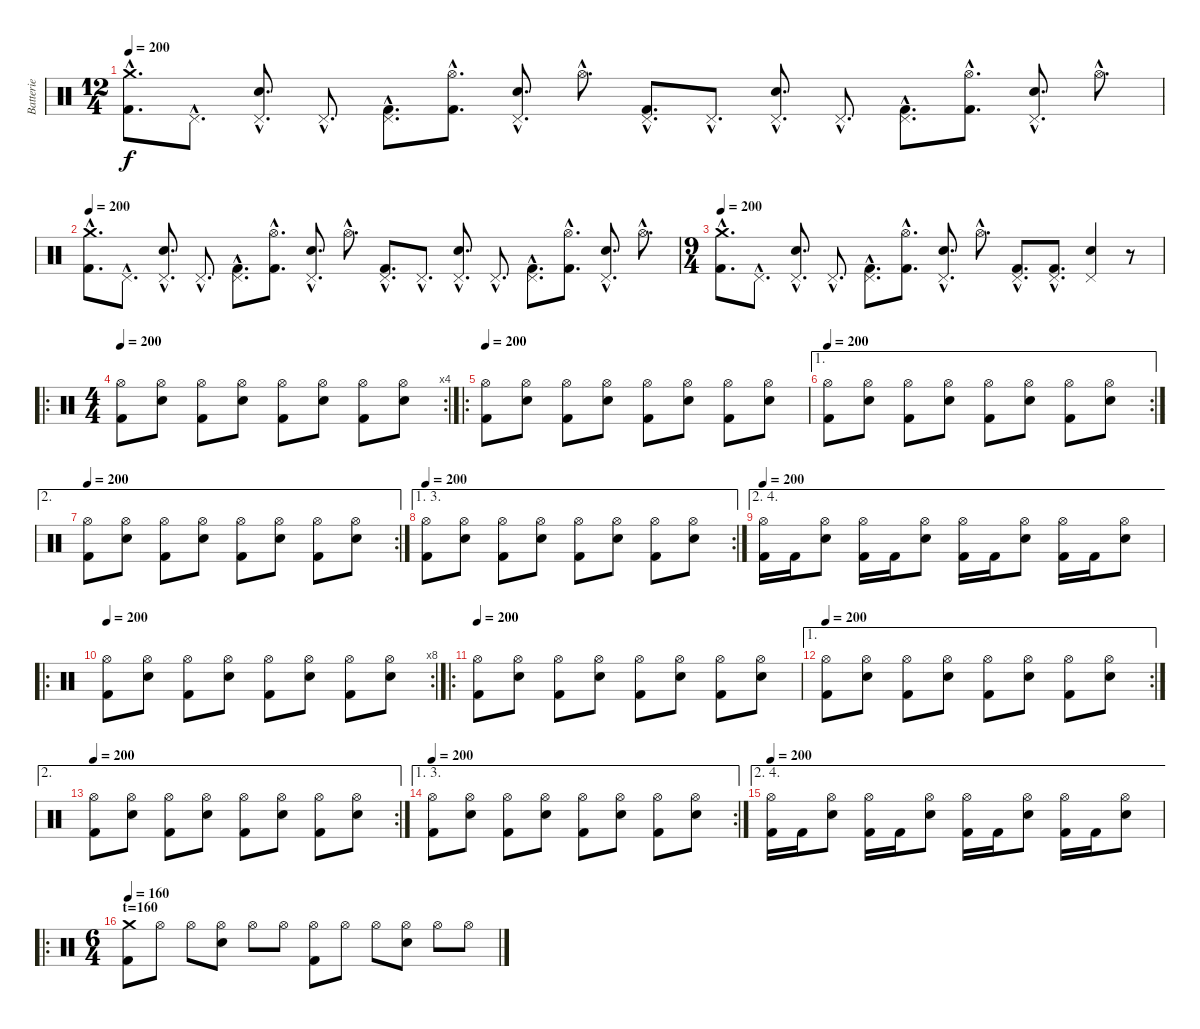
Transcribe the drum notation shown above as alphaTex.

\track ("Batterie" "Batterie") {instrument percussion}
\staff {score}
\articulation defaults
\ts (12 4)
\tempo 220
\tempo 200
\clef neutral
\ks c
("Crash medium (hit)"{hac} "Kick (hit) 2"{hac}).8{d dy f} "Pedal Hi-Hat (hit)"{hac}.8{d} ("Pedal Hi-Hat (hit)"{hac} "Electric Snare (hit)"{hac}).8{d} "Pedal Hi-Hat (hit)"{hac}.8{d} ("Pedal Hi-Hat (hit)"{hac} "Kick (hit) 2"{hac}).8{d} ("Hi-Hat (open)"{hac} "Kick (hit) 2"{hac}).8{d} ("Pedal Hi-Hat (hit)"{hac} "Electric Snare (hit)"{hac}).8{d} "Hi-Hat (open)"{hac}.8{d} ("Pedal Hi-Hat (hit)"{hac} "Kick (hit) 2"{hac}).8{d} "Pedal Hi-Hat (hit)"{hac}.8{d} ("Pedal Hi-Hat (hit)"{hac} "Electric Snare (hit)"{hac}).8{d} "Pedal Hi-Hat (hit)"{hac}.8{d} ("Pedal Hi-Hat (hit)"{hac} "Kick (hit) 2"{hac}).8{d} ("Hi-Hat (open)"{hac} "Kick (hit) 2"{hac}).8{d} ("Pedal Hi-Hat (hit)"{hac} "Electric Snare (hit)"{hac}).8{d} "Hi-Hat (open)"{hac}.8{d} |
\tempo 220
\tempo 200
("Crash medium (hit)"{hac} "Kick (hit) 2"{hac}).8{d} "Pedal Hi-Hat (hit)"{hac}.8{d} ("Pedal Hi-Hat (hit)"{hac} "Electric Snare (hit)"{hac}).8{d} "Pedal Hi-Hat (hit)"{hac}.8{d} ("Pedal Hi-Hat (hit)"{hac} "Kick (hit) 2"{hac}).8{d} ("Hi-Hat (open)"{hac} "Kick (hit) 2"{hac}).8{d} ("Pedal Hi-Hat (hit)"{hac} "Electric Snare (hit)"{hac}).8{d} "Hi-Hat (open)"{hac}.8{d} ("Pedal Hi-Hat (hit)"{hac} "Kick (hit) 2"{hac}).8{d} "Pedal Hi-Hat (hit)"{hac}.8{d} ("Pedal Hi-Hat (hit)"{hac} "Electric Snare (hit)"{hac}).8{d} "Pedal Hi-Hat (hit)"{hac}.8{d} ("Pedal Hi-Hat (hit)"{hac} "Kick (hit) 2"{hac}).8{d} ("Hi-Hat (open)"{hac} "Kick (hit) 2"{hac}).8{d} ("Pedal Hi-Hat (hit)"{hac} "Electric Snare (hit)"{hac}).8{d} "Hi-Hat (open)"{hac}.8{d} |
\ts (9 4)
\tempo 200
("Crash medium (hit)"{hac} "Kick (hit) 2"{hac}).8{d} "Pedal Hi-Hat (hit)"{hac}.8{d} ("Pedal Hi-Hat (hit)"{hac} "Electric Snare (hit)"{hac}).8{d} "Pedal Hi-Hat (hit)"{hac}.8{d} ("Pedal Hi-Hat (hit)"{hac} "Kick (hit) 2"{hac}).8{d} ("Hi-Hat (open)"{hac} "Kick (hit) 2"{hac}).8{d} ("Pedal Hi-Hat (hit)"{hac} "Electric Snare (hit)"{hac}).8{d} "Hi-Hat (open)"{hac}.8{d} ("Pedal Hi-Hat (hit)"{hac} "Kick (hit) 2"{hac}).8{d} ("Pedal Hi-Hat (hit)"{hac} "Kick (hit) 2"{hac}).8{d} ("Pedal Hi-Hat (hit)" "Electric Snare (hit)").4 r.8 |
\ro
\rc 4
\ts (4 4)
\tempo 200
("Hi-Hat (open)" "Kick (hit) 2").8 ("Hi-Hat (open)" "Electric Snare (hit)").8 ("Hi-Hat (open)" "Kick (hit) 2").8 ("Hi-Hat (open)" "Electric Snare (hit)").8 ("Hi-Hat (open)" "Kick (hit) 2").8 ("Hi-Hat (open)" "Electric Snare (hit)").8 ("Hi-Hat (open)" "Kick (hit) 2").8 ("Hi-Hat (open)" "Electric Snare (hit)").8 |
\ro
\tempo 200
("Hi-Hat (open)" "Kick (hit) 2").8 ("Hi-Hat (open)" "Electric Snare (hit)").8 ("Hi-Hat (open)" "Kick (hit) 2").8 ("Hi-Hat (open)" "Electric Snare (hit)").8 ("Hi-Hat (open)" "Kick (hit) 2").8 ("Hi-Hat (open)" "Electric Snare (hit)").8 ("Hi-Hat (open)" "Kick (hit) 2").8 ("Hi-Hat (open)" "Electric Snare (hit)").8 |
\ae 1
\rc 2
\tempo 200
("Hi-Hat (open)" "Kick (hit) 2").8 ("Hi-Hat (open)" "Electric Snare (hit)").8 ("Hi-Hat (open)" "Kick (hit) 2").8 ("Hi-Hat (open)" "Electric Snare (hit)").8 ("Hi-Hat (open)" "Kick (hit) 2").8 ("Hi-Hat (open)" "Electric Snare (hit)").8 ("Hi-Hat (open)" "Kick (hit) 2").8 ("Hi-Hat (open)" "Electric Snare (hit)").8 |
\ae 2
\rc 2
\tempo 200
("Hi-Hat (open)" "Kick (hit) 2").8 ("Hi-Hat (open)" "Electric Snare (hit)").8 ("Hi-Hat (open)" "Kick (hit) 2").8 ("Hi-Hat (open)" "Electric Snare (hit)").8 ("Hi-Hat (open)" "Kick (hit) 2").8 ("Hi-Hat (open)" "Electric Snare (hit)").8 ("Hi-Hat (open)" "Kick (hit) 2").8 ("Hi-Hat (open)" "Electric Snare (hit)").8 |
\ae (1 3)
\rc 2
\tempo 200
("Hi-Hat (open)" "Kick (hit) 2").8 ("Hi-Hat (open)" "Electric Snare (hit)").8 ("Hi-Hat (open)" "Kick (hit) 2").8 ("Hi-Hat (open)" "Electric Snare (hit)").8 ("Hi-Hat (open)" "Kick (hit) 2").8 ("Hi-Hat (open)" "Electric Snare (hit)").8 ("Hi-Hat (open)" "Kick (hit) 2").8 ("Hi-Hat (open)" "Electric Snare (hit)").8 |
\ae (2 4)
\tempo 200
("Hi-Hat (open)" "Kick (hit) 2").16 "Kick (hit) 2".16 ("Hi-Hat (open)" "Electric Snare (hit)").8 ("Hi-Hat (open)" "Kick (hit) 2").16 "Kick (hit) 2".16 ("Hi-Hat (open)" "Electric Snare (hit)").8 ("Hi-Hat (open)" "Kick (hit) 2").16 "Kick (hit) 2".16 ("Hi-Hat (open)" "Electric Snare (hit)").8 ("Hi-Hat (open)" "Kick (hit) 2").16 "Kick (hit) 2".16 ("Hi-Hat (open)" "Electric Snare (hit)").8 |
\ro
\rc 8
\tempo 200
("Hi-Hat (open)" "Kick (hit) 2").8 ("Hi-Hat (open)" "Electric Snare (hit)").8 ("Hi-Hat (open)" "Kick (hit) 2").8 ("Hi-Hat (open)" "Electric Snare (hit)").8 ("Hi-Hat (open)" "Kick (hit) 2").8 ("Hi-Hat (open)" "Electric Snare (hit)").8 ("Hi-Hat (open)" "Kick (hit) 2").8 ("Hi-Hat (open)" "Electric Snare (hit)").8 |
\ro
\tempo 200
("Hi-Hat (open)" "Kick (hit) 2").8 ("Hi-Hat (open)" "Electric Snare (hit)").8 ("Hi-Hat (open)" "Kick (hit) 2").8 ("Hi-Hat (open)" "Electric Snare (hit)").8 ("Hi-Hat (open)" "Kick (hit) 2").8 ("Hi-Hat (open)" "Electric Snare (hit)").8 ("Hi-Hat (open)" "Kick (hit) 2").8 ("Hi-Hat (open)" "Electric Snare (hit)").8 |
\ae 1
\rc 2
\tempo 200
("Hi-Hat (open)" "Kick (hit) 2").8 ("Hi-Hat (open)" "Electric Snare (hit)").8 ("Hi-Hat (open)" "Kick (hit) 2").8 ("Hi-Hat (open)" "Electric Snare (hit)").8 ("Hi-Hat (open)" "Kick (hit) 2").8 ("Hi-Hat (open)" "Electric Snare (hit)").8 ("Hi-Hat (open)" "Kick (hit) 2").8 ("Hi-Hat (open)" "Electric Snare (hit)").8 |
\ae 2
\rc 2
\tempo 200
("Hi-Hat (open)" "Kick (hit) 2").8 ("Hi-Hat (open)" "Electric Snare (hit)").8 ("Hi-Hat (open)" "Kick (hit) 2").8 ("Hi-Hat (open)" "Electric Snare (hit)").8 ("Hi-Hat (open)" "Kick (hit) 2").8 ("Hi-Hat (open)" "Electric Snare (hit)").8 ("Hi-Hat (open)" "Kick (hit) 2").8 ("Hi-Hat (open)" "Electric Snare (hit)").8 |
\ae (1 3)
\rc 2
\tempo 200
("Hi-Hat (open)" "Kick (hit) 2").8 ("Hi-Hat (open)" "Electric Snare (hit)").8 ("Hi-Hat (open)" "Kick (hit) 2").8 ("Hi-Hat (open)" "Electric Snare (hit)").8 ("Hi-Hat (open)" "Kick (hit) 2").8 ("Hi-Hat (open)" "Electric Snare (hit)").8 ("Hi-Hat (open)" "Kick (hit) 2").8 ("Hi-Hat (open)" "Electric Snare (hit)").8 |
\ae (2 4)
\tempo 200
("Hi-Hat (open)" "Kick (hit) 2").16 "Kick (hit) 2".16 ("Hi-Hat (open)" "Electric Snare (hit)").8 ("Hi-Hat (open)" "Kick (hit) 2").16 "Kick (hit) 2".16 ("Hi-Hat (open)" "Electric Snare (hit)").8 ("Hi-Hat (open)" "Kick (hit) 2").16 "Kick (hit) 2".16 ("Hi-Hat (open)" "Electric Snare (hit)").8 ("Hi-Hat (open)" "Kick (hit) 2").16 "Kick (hit) 2".16 ("Hi-Hat (open)" "Electric Snare (hit)").8 |
\ro
\ts (6 4)
\section ("" "t=160")
\tempo 160
("Crash medium (hit)" "Kick (hit) 2").8 "Hi-Hat (open)".8 "Hi-Hat (open)".8 ("Hi-Hat (open)" "Electric Snare (hit)").8 "Hi-Hat (open)".8 "Hi-Hat (open)".8 ("Hi-Hat (open)" "Kick (hit) 2").8 "Hi-Hat (open)".8 "Hi-Hat (open)".8 ("Hi-Hat (open)" "Electric Snare (hit)").8 "Hi-Hat (open)".8 "Hi-Hat (open)".8
